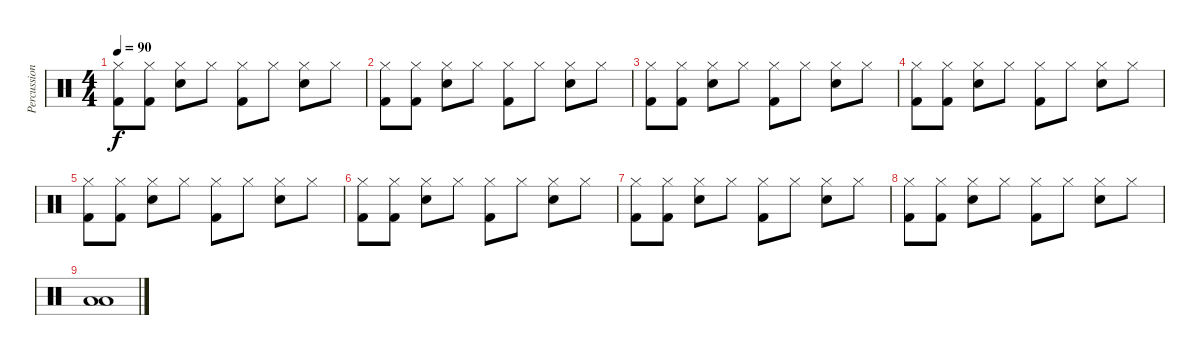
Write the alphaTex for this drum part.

\track ("Percussion" "Percussion") {instrument percussion}
\staff {score}
\articulation defaults
\ts (4 4)
\tempo 90
\clef neutral
\ks c
("Hi-Hat (closed)" "Kick (hit) 2").8{dy f} ("Hi-Hat (closed)" "Kick (hit) 2").8 ("Hi-Hat (closed)" "Snare (hit) 2").8 "Hi-Hat (closed)".8 ("Hi-Hat (closed)" "Kick (hit) 2").8 "Hi-Hat (closed)".8 ("Hi-Hat (closed)" "Snare (hit) 2").8 "Hi-Hat (closed)".8 |
("Hi-Hat (closed)" "Kick (hit) 2").8 ("Hi-Hat (closed)" "Kick (hit) 2").8 ("Hi-Hat (closed)" "Snare (hit) 2").8 "Hi-Hat (closed)".8 ("Hi-Hat (closed)" "Kick (hit) 2").8 "Hi-Hat (closed)".8 ("Hi-Hat (closed)" "Snare (hit) 2").8 "Hi-Hat (closed)".8 |
("Hi-Hat (closed)" "Kick (hit) 2").8 ("Hi-Hat (closed)" "Kick (hit) 2").8 ("Hi-Hat (closed)" "Snare (hit) 2").8 "Hi-Hat (closed)".8 ("Hi-Hat (closed)" "Kick (hit) 2").8 "Hi-Hat (closed)".8 ("Hi-Hat (closed)" "Snare (hit) 2").8 "Hi-Hat (closed)".8 |
("Hi-Hat (closed)" "Kick (hit) 2").8 ("Hi-Hat (closed)" "Kick (hit) 2").8 ("Hi-Hat (closed)" "Snare (hit) 2").8 "Hi-Hat (closed)".8 ("Hi-Hat (closed)" "Kick (hit) 2").8 "Hi-Hat (closed)".8 ("Hi-Hat (closed)" "Snare (hit) 2").8 "Hi-Hat (closed)".8 |
("Hi-Hat (closed)" "Kick (hit) 2").8 ("Hi-Hat (closed)" "Kick (hit) 2").8 ("Hi-Hat (closed)" "Snare (hit) 2").8 "Hi-Hat (closed)".8 ("Hi-Hat (closed)" "Kick (hit) 2").8 "Hi-Hat (closed)".8 ("Hi-Hat (closed)" "Snare (hit) 2").8 "Hi-Hat (closed)".8 |
("Hi-Hat (closed)" "Kick (hit) 2").8 ("Hi-Hat (closed)" "Kick (hit) 2").8 ("Hi-Hat (closed)" "Snare (hit) 2").8 "Hi-Hat (closed)".8 ("Hi-Hat (closed)" "Kick (hit) 2").8 "Hi-Hat (closed)".8 ("Hi-Hat (closed)" "Snare (hit) 2").8 "Hi-Hat (closed)".8 |
("Hi-Hat (closed)" "Kick (hit) 2").8 ("Hi-Hat (closed)" "Kick (hit) 2").8 ("Hi-Hat (closed)" "Snare (hit) 2").8 "Hi-Hat (closed)".8 ("Hi-Hat (closed)" "Kick (hit) 2").8 "Hi-Hat (closed)".8 ("Hi-Hat (closed)" "Snare (hit) 2").8 "Hi-Hat (closed)".8 |
("Hi-Hat (closed)" "Kick (hit) 2").8 ("Hi-Hat (closed)" "Kick (hit) 2").8 ("Hi-Hat (closed)" "Snare (hit) 2").8 "Hi-Hat (closed)".8 ("Hi-Hat (closed)" "Kick (hit) 2").8 "Hi-Hat (closed)".8 ("Hi-Hat (closed)" "Snare (hit) 2").8 "Hi-Hat (closed)".8 |
("Low Tom (hit)" "Low Floor Tom (hit)").1
